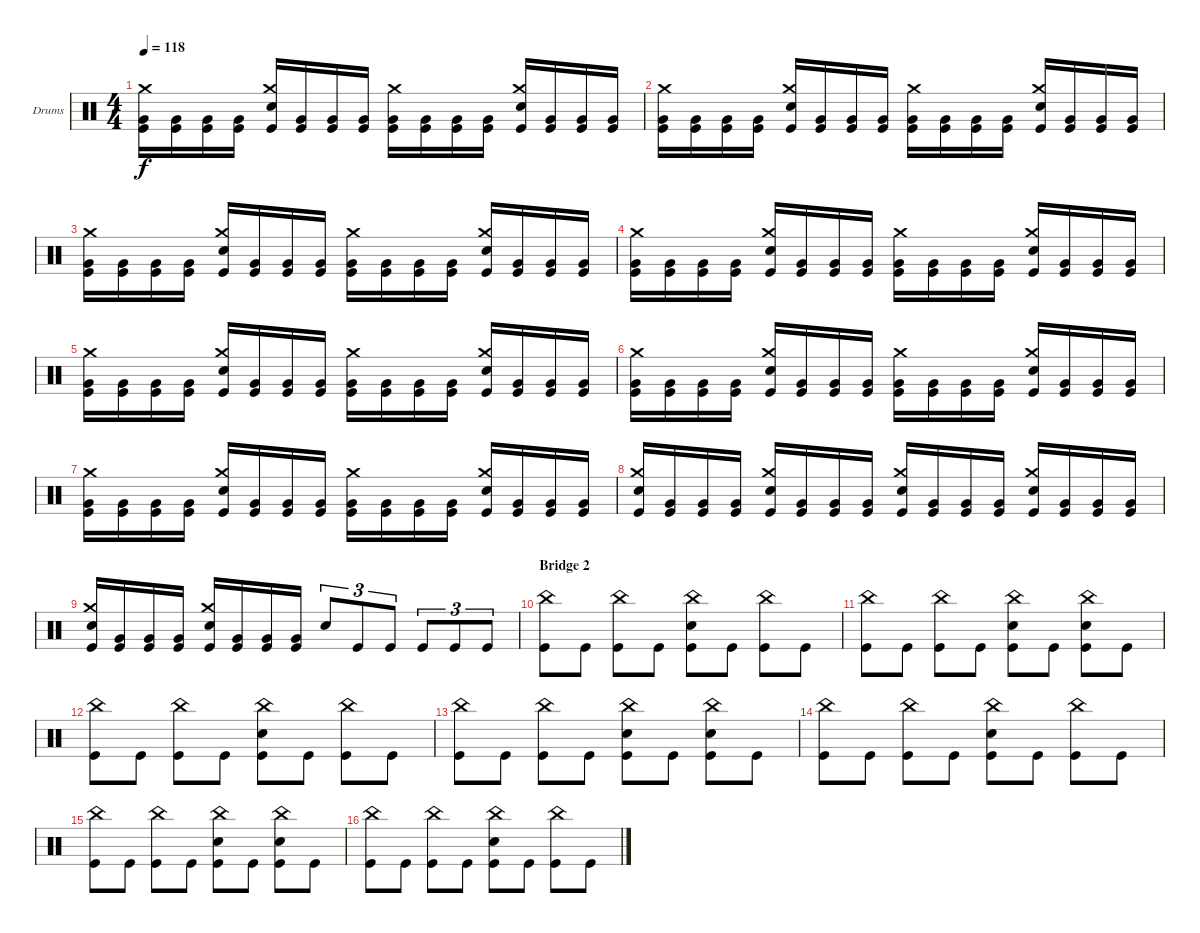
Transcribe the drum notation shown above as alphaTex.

\bracketExtendMode groupsimilarinstruments
\firstSystemTrackNameOrientation horizontal
\otherSystemsTrackNameOrientation horizontal
\track ("Drumkit" "Drums") {solo instrument percussion}
\staff {score}
\articulation defaults
\ts (4 4)
\tempo 118
\clef neutral
\ks c
("Kick (hit)" "Very Low Tom (hit)" "Crash medium (hit)").16{dy f} ("Kick (hit)" "Very Low Tom (hit)").16 ("Kick (hit)" "Very Low Tom (hit)").16 ("Kick (hit)" "Very Low Tom (hit)").16 ("Kick (hit)" "Snare (hit) 2" "Crash medium (hit)").16 ("Kick (hit)" "Very Low Tom (hit)").16 ("Kick (hit)" "Very Low Tom (hit)").16 ("Kick (hit)" "Very Low Tom (hit)").16 ("Kick (hit)" "Very Low Tom (hit)" "Crash medium (hit)").16 ("Kick (hit)" "Very Low Tom (hit)").16 ("Kick (hit)" "Very Low Tom (hit)").16 ("Kick (hit)" "Very Low Tom (hit)").16 ("Kick (hit)" "Snare (hit) 2" "Crash medium (hit)").16 ("Kick (hit)" "Very Low Tom (hit)").16 ("Kick (hit)" "Very Low Tom (hit)").16 ("Kick (hit)" "Very Low Tom (hit)").16 |
("Kick (hit)" "Very Low Tom (hit)" "Crash medium (hit)").16 ("Kick (hit)" "Very Low Tom (hit)").16 ("Kick (hit)" "Very Low Tom (hit)").16 ("Kick (hit)" "Very Low Tom (hit)").16 ("Kick (hit)" "Snare (hit) 2" "Crash medium (hit)").16 ("Kick (hit)" "Very Low Tom (hit)").16 ("Kick (hit)" "Very Low Tom (hit)").16 ("Kick (hit)" "Very Low Tom (hit)").16 ("Kick (hit)" "Very Low Tom (hit)" "Crash medium (hit)").16 ("Kick (hit)" "Very Low Tom (hit)").16 ("Kick (hit)" "Very Low Tom (hit)").16 ("Kick (hit)" "Very Low Tom (hit)").16 ("Kick (hit)" "Snare (hit) 2" "Crash medium (hit)").16 ("Kick (hit)" "Very Low Tom (hit)").16 ("Kick (hit)" "Very Low Tom (hit)").16 ("Kick (hit)" "Very Low Tom (hit)").16 |
("Kick (hit)" "Very Low Tom (hit)" "Crash medium (hit)").16 ("Kick (hit)" "Very Low Tom (hit)").16 ("Kick (hit)" "Very Low Tom (hit)").16 ("Kick (hit)" "Very Low Tom (hit)").16 ("Kick (hit)" "Snare (hit) 2" "Crash medium (hit)").16 ("Kick (hit)" "Very Low Tom (hit)").16 ("Kick (hit)" "Very Low Tom (hit)").16 ("Kick (hit)" "Very Low Tom (hit)").16 ("Kick (hit)" "Very Low Tom (hit)" "Crash medium (hit)").16 ("Kick (hit)" "Very Low Tom (hit)").16 ("Kick (hit)" "Very Low Tom (hit)").16 ("Kick (hit)" "Very Low Tom (hit)").16 ("Kick (hit)" "Snare (hit) 2" "Crash medium (hit)").16 ("Kick (hit)" "Very Low Tom (hit)").16 ("Kick (hit)" "Very Low Tom (hit)").16 ("Kick (hit)" "Very Low Tom (hit)").16 |
("Kick (hit)" "Very Low Tom (hit)" "Crash medium (hit)").16 ("Kick (hit)" "Very Low Tom (hit)").16 ("Kick (hit)" "Very Low Tom (hit)").16 ("Kick (hit)" "Very Low Tom (hit)").16 ("Kick (hit)" "Snare (hit) 2" "Crash medium (hit)").16 ("Kick (hit)" "Very Low Tom (hit)").16 ("Kick (hit)" "Very Low Tom (hit)").16 ("Kick (hit)" "Very Low Tom (hit)").16 ("Kick (hit)" "Very Low Tom (hit)" "Crash medium (hit)").16 ("Kick (hit)" "Very Low Tom (hit)").16 ("Kick (hit)" "Very Low Tom (hit)").16 ("Kick (hit)" "Very Low Tom (hit)").16 ("Kick (hit)" "Snare (hit) 2" "Crash medium (hit)").16 ("Kick (hit)" "Very Low Tom (hit)").16 ("Kick (hit)" "Very Low Tom (hit)").16 ("Kick (hit)" "Very Low Tom (hit)").16 |
("Kick (hit)" "Very Low Tom (hit)" "Crash medium (hit)").16 ("Kick (hit)" "Very Low Tom (hit)").16 ("Kick (hit)" "Very Low Tom (hit)").16 ("Kick (hit)" "Very Low Tom (hit)").16 ("Kick (hit)" "Snare (hit) 2" "Crash medium (hit)").16 ("Kick (hit)" "Very Low Tom (hit)").16 ("Kick (hit)" "Very Low Tom (hit)").16 ("Kick (hit)" "Very Low Tom (hit)").16 ("Kick (hit)" "Very Low Tom (hit)" "Crash medium (hit)").16 ("Kick (hit)" "Very Low Tom (hit)").16 ("Kick (hit)" "Very Low Tom (hit)").16 ("Kick (hit)" "Very Low Tom (hit)").16 ("Kick (hit)" "Snare (hit) 2" "Crash medium (hit)").16 ("Kick (hit)" "Very Low Tom (hit)").16 ("Kick (hit)" "Very Low Tom (hit)").16 ("Kick (hit)" "Very Low Tom (hit)").16 |
("Kick (hit)" "Very Low Tom (hit)" "Crash medium (hit)").16 ("Kick (hit)" "Very Low Tom (hit)").16 ("Kick (hit)" "Very Low Tom (hit)").16 ("Kick (hit)" "Very Low Tom (hit)").16 ("Kick (hit)" "Snare (hit) 2" "Crash medium (hit)").16 ("Kick (hit)" "Very Low Tom (hit)").16 ("Kick (hit)" "Very Low Tom (hit)").16 ("Kick (hit)" "Very Low Tom (hit)").16 ("Kick (hit)" "Very Low Tom (hit)" "Crash medium (hit)").16 ("Kick (hit)" "Very Low Tom (hit)").16 ("Kick (hit)" "Very Low Tom (hit)").16 ("Kick (hit)" "Very Low Tom (hit)").16 ("Kick (hit)" "Snare (hit) 2" "Crash medium (hit)").16 ("Kick (hit)" "Very Low Tom (hit)").16 ("Kick (hit)" "Very Low Tom (hit)").16 ("Kick (hit)" "Very Low Tom (hit)").16 |
("Kick (hit)" "Very Low Tom (hit)" "Crash medium (hit)").16 ("Kick (hit)" "Very Low Tom (hit)").16 ("Kick (hit)" "Very Low Tom (hit)").16 ("Kick (hit)" "Very Low Tom (hit)").16 ("Kick (hit)" "Snare (hit) 2" "Crash medium (hit)").16 ("Kick (hit)" "Very Low Tom (hit)").16 ("Kick (hit)" "Very Low Tom (hit)").16 ("Kick (hit)" "Very Low Tom (hit)").16 ("Kick (hit)" "Very Low Tom (hit)" "Crash medium (hit)").16 ("Kick (hit)" "Very Low Tom (hit)").16 ("Kick (hit)" "Very Low Tom (hit)").16 ("Kick (hit)" "Very Low Tom (hit)").16 ("Kick (hit)" "Snare (hit) 2" "Crash medium (hit)").16 ("Kick (hit)" "Very Low Tom (hit)").16 ("Kick (hit)" "Very Low Tom (hit)").16 ("Kick (hit)" "Very Low Tom (hit)").16 |
("Kick (hit)" "Snare (hit) 2" "Crash medium (hit)").16 ("Kick (hit)" "Very Low Tom (hit)").16 ("Kick (hit)" "Very Low Tom (hit)").16 ("Kick (hit)" "Very Low Tom (hit)").16 ("Kick (hit)" "Snare (hit) 2" "Crash medium (hit)").16 ("Kick (hit)" "Very Low Tom (hit)").16 ("Kick (hit)" "Very Low Tom (hit)").16 ("Kick (hit)" "Very Low Tom (hit)").16 ("Kick (hit)" "Snare (hit) 2" "Crash medium (hit)").16 ("Kick (hit)" "Very Low Tom (hit)").16 ("Kick (hit)" "Very Low Tom (hit)").16 ("Kick (hit)" "Very Low Tom (hit)").16 ("Kick (hit)" "Snare (hit) 2" "Crash medium (hit)").16 ("Kick (hit)" "Very Low Tom (hit)").16 ("Kick (hit)" "Very Low Tom (hit)").16 ("Kick (hit)" "Very Low Tom (hit)").16 |
("Kick (hit)" "Snare (hit) 2" "Crash medium (hit)").16 ("Kick (hit)" "Very Low Tom (hit)").16 ("Kick (hit)" "Very Low Tom (hit)").16 ("Kick (hit)" "Very Low Tom (hit)").16 ("Kick (hit)" "Snare (hit) 2" "Crash medium (hit)").16 ("Kick (hit)" "Very Low Tom (hit)").16 ("Kick (hit)" "Very Low Tom (hit)").16 ("Kick (hit)" "Very Low Tom (hit)").16 "Snare (hit) 2".8{tu (3 2)} "Kick (hit)".8{tu (3 2)} "Kick (hit)".8{tu (3 2)} "Kick (hit)".8{tu (3 2)} "Kick (hit)".8{tu (3 2)} "Kick (hit)".8{tu (3 2)} |
\section ("" "Bridge 2")
("Kick (hit)" "China (hit)").8 "Kick (hit)".8 ("Kick (hit)" "China (hit)").8 "Kick (hit)".8 ("Kick (hit)" "Snare (hit) 2" "China (hit)").8 "Kick (hit)".8 ("Kick (hit)" "China (hit)").8 "Kick (hit)".8 |
("Kick (hit)" "China (hit)").8 "Kick (hit)".8 ("Kick (hit)" "China (hit)").8 "Kick (hit)".8 ("Kick (hit)" "Snare (hit) 2" "China (hit)").8 "Kick (hit)".8 ("Kick (hit)" "Snare (hit) 2" "China (hit)").8 "Kick (hit)".8 |
("Kick (hit)" "China (hit)").8 "Kick (hit)".8 ("Kick (hit)" "China (hit)").8 "Kick (hit)".8 ("Kick (hit)" "Snare (hit) 2" "China (hit)").8 "Kick (hit)".8 ("Kick (hit)" "China (hit)").8 "Kick (hit)".8 |
("Kick (hit)" "China (hit)").8 "Kick (hit)".8 ("Kick (hit)" "China (hit)").8 "Kick (hit)".8 ("Kick (hit)" "Snare (hit) 2" "China (hit)").8 "Kick (hit)".8 ("Kick (hit)" "Snare (hit) 2" "China (hit)").8 "Kick (hit)".8 |
("Kick (hit)" "China (hit)").8 "Kick (hit)".8 ("Kick (hit)" "China (hit)").8 "Kick (hit)".8 ("Kick (hit)" "Snare (hit) 2" "China (hit)").8 "Kick (hit)".8 ("Kick (hit)" "China (hit)").8 "Kick (hit)".8 |
("Kick (hit)" "China (hit)").8 "Kick (hit)".8 ("Kick (hit)" "China (hit)").8 "Kick (hit)".8 ("Kick (hit)" "Snare (hit) 2" "China (hit)").8 "Kick (hit)".8 ("Kick (hit)" "Snare (hit) 2" "China (hit)").8 "Kick (hit)".8 |
("Kick (hit)" "China (hit)").8 "Kick (hit)".8 ("Kick (hit)" "China (hit)").8 "Kick (hit)".8 ("Kick (hit)" "Snare (hit) 2" "China (hit)").8 "Kick (hit)".8 ("Kick (hit)" "China (hit)").8 "Kick (hit)".8
